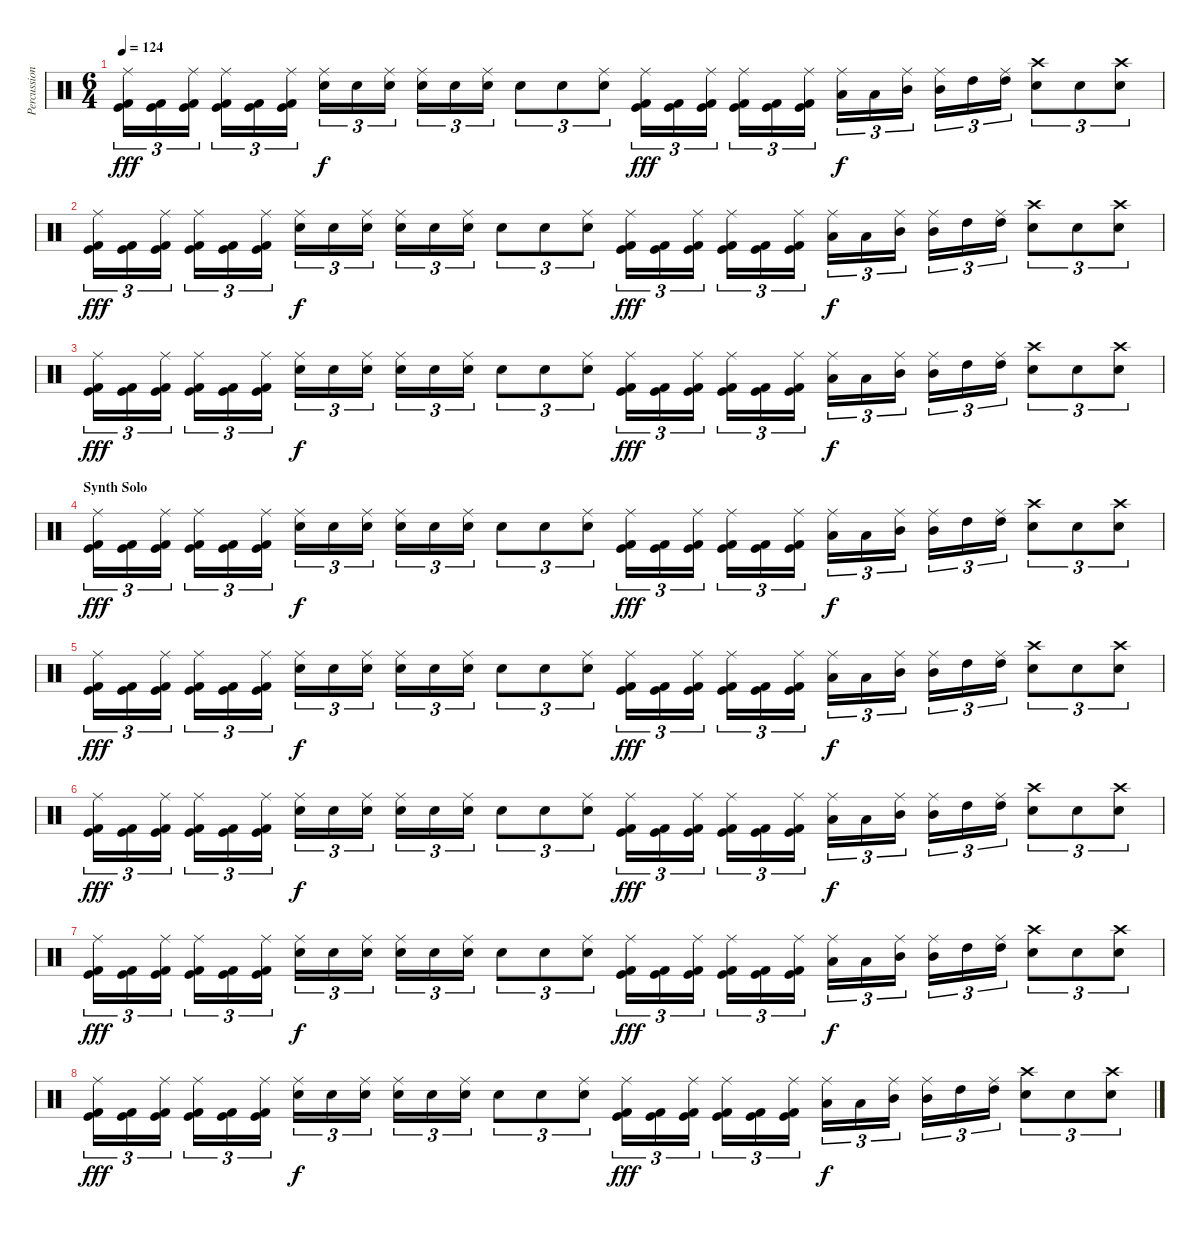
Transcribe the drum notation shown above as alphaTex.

\track ("Percussion" "Percussion") {instrument percussion}
\staff {score}
\articulation defaults
\ts (6 4)
\tempo 124
\clef neutral
\ks c
("Ride (middle)" "Kick (hit) 2" "Kick (hit)").16{tu (3 2) dy fff} ("Kick (hit) 2" "Kick (hit)").16{tu (3 2)} ("Ride (middle)" "Kick (hit) 2" "Kick (hit)").16{tu (3 2)} ("Ride (middle)" "Kick (hit) 2" "Kick (hit)").16{tu (3 2)} ("Kick (hit) 2" "Kick (hit)").16{tu (3 2)} ("Ride (middle)" "Kick (hit) 2" "Kick (hit)").16{tu (3 2)} ("Ride (middle)" "Snare (hit) 2").16{tu (3 2) dy f} "Snare (hit) 2".16{tu (3 2)} ("Ride (middle)" "Snare (hit) 2").16{tu (3 2)} ("Ride (middle)" "Snare (hit) 2").16{tu (3 2)} "Snare (hit) 2".16{tu (3 2)} ("Ride (middle)" "Snare (hit) 2").16{tu (3 2)} "Snare (hit) 2".8{tu (3 2)} "Snare (hit) 2".8{tu (3 2)} ("Ride (middle)" "Snare (hit) 2").8{tu (3 2)} ("Ride (middle)" "Kick (hit) 2" "Kick (hit)").16{tu (3 2) dy fff} ("Kick (hit) 2" "Kick (hit)").16{tu (3 2)} ("Ride (middle)" "Kick (hit) 2" "Kick (hit)").16{tu (3 2)} ("Ride (middle)" "Kick (hit) 2" "Kick (hit)").16{tu (3 2)} ("Kick (hit) 2" "Kick (hit)").16{tu (3 2)} ("Ride (middle)" "Kick (hit) 2" "Kick (hit)").16{tu (3 2)} ("Ride (middle)" "Low Tom (hit)").16{tu (3 2) dy f} "Low Tom (hit)".16{tu (3 2)} ("Ride (middle)" "Mid Tom (hit)").16{tu (3 2)} ("Ride (middle)" "Mid Tom (hit)").16{tu (3 2)} "High Tom (hit)".16{tu (3 2)} ("Ride (middle)" "High Tom (hit)").16{tu (3 2)} ("Crash high (hit)" "Snare (hit) 2").8{tu (3 2)} "Snare (hit) 2".8{tu (3 2)} ("Crash high (hit)" "Snare (hit) 2").8{tu (3 2)} |
("Ride (middle)" "Kick (hit) 2" "Kick (hit)").16{tu (3 2) dy fff} ("Kick (hit) 2" "Kick (hit)").16{tu (3 2)} ("Ride (middle)" "Kick (hit) 2" "Kick (hit)").16{tu (3 2)} ("Ride (middle)" "Kick (hit) 2" "Kick (hit)").16{tu (3 2)} ("Kick (hit) 2" "Kick (hit)").16{tu (3 2)} ("Ride (middle)" "Kick (hit) 2" "Kick (hit)").16{tu (3 2)} ("Ride (middle)" "Snare (hit) 2").16{tu (3 2) dy f} "Snare (hit) 2".16{tu (3 2)} ("Ride (middle)" "Snare (hit) 2").16{tu (3 2)} ("Ride (middle)" "Snare (hit) 2").16{tu (3 2)} "Snare (hit) 2".16{tu (3 2)} ("Ride (middle)" "Snare (hit) 2").16{tu (3 2)} "Snare (hit) 2".8{tu (3 2)} "Snare (hit) 2".8{tu (3 2)} ("Ride (middle)" "Snare (hit) 2").8{tu (3 2)} ("Ride (middle)" "Kick (hit) 2" "Kick (hit)").16{tu (3 2) dy fff} ("Kick (hit) 2" "Kick (hit)").16{tu (3 2)} ("Ride (middle)" "Kick (hit) 2" "Kick (hit)").16{tu (3 2)} ("Ride (middle)" "Kick (hit) 2" "Kick (hit)").16{tu (3 2)} ("Kick (hit) 2" "Kick (hit)").16{tu (3 2)} ("Ride (middle)" "Kick (hit) 2" "Kick (hit)").16{tu (3 2)} ("Ride (middle)" "Low Tom (hit)").16{tu (3 2) dy f} "Low Tom (hit)".16{tu (3 2)} ("Ride (middle)" "Mid Tom (hit)").16{tu (3 2)} ("Ride (middle)" "Mid Tom (hit)").16{tu (3 2)} "High Tom (hit)".16{tu (3 2)} ("Ride (middle)" "High Tom (hit)").16{tu (3 2)} ("Crash high (hit)" "Snare (hit) 2").8{tu (3 2)} "Snare (hit) 2".8{tu (3 2)} ("Crash high (hit)" "Snare (hit) 2").8{tu (3 2)} |
("Ride (middle)" "Kick (hit) 2" "Kick (hit)").16{tu (3 2) dy fff} ("Kick (hit) 2" "Kick (hit)").16{tu (3 2)} ("Ride (middle)" "Kick (hit) 2" "Kick (hit)").16{tu (3 2)} ("Ride (middle)" "Kick (hit) 2" "Kick (hit)").16{tu (3 2)} ("Kick (hit) 2" "Kick (hit)").16{tu (3 2)} ("Ride (middle)" "Kick (hit) 2" "Kick (hit)").16{tu (3 2)} ("Ride (middle)" "Snare (hit) 2").16{tu (3 2) dy f} "Snare (hit) 2".16{tu (3 2)} ("Ride (middle)" "Snare (hit) 2").16{tu (3 2)} ("Ride (middle)" "Snare (hit) 2").16{tu (3 2)} "Snare (hit) 2".16{tu (3 2)} ("Ride (middle)" "Snare (hit) 2").16{tu (3 2)} "Snare (hit) 2".8{tu (3 2)} "Snare (hit) 2".8{tu (3 2)} ("Ride (middle)" "Snare (hit) 2").8{tu (3 2)} ("Ride (middle)" "Kick (hit) 2" "Kick (hit)").16{tu (3 2) dy fff} ("Kick (hit) 2" "Kick (hit)").16{tu (3 2)} ("Ride (middle)" "Kick (hit) 2" "Kick (hit)").16{tu (3 2)} ("Ride (middle)" "Kick (hit) 2" "Kick (hit)").16{tu (3 2)} ("Kick (hit) 2" "Kick (hit)").16{tu (3 2)} ("Ride (middle)" "Kick (hit) 2" "Kick (hit)").16{tu (3 2)} ("Ride (middle)" "Low Tom (hit)").16{tu (3 2) dy f} "Low Tom (hit)".16{tu (3 2)} ("Ride (middle)" "Mid Tom (hit)").16{tu (3 2)} ("Ride (middle)" "Mid Tom (hit)").16{tu (3 2)} "High Tom (hit)".16{tu (3 2)} ("Ride (middle)" "High Tom (hit)").16{tu (3 2)} ("Crash high (hit)" "Snare (hit) 2").8{tu (3 2)} "Snare (hit) 2".8{tu (3 2)} ("Crash high (hit)" "Snare (hit) 2").8{tu (3 2)} |
\section ("" "Synth Solo")
("Ride (middle)" "Kick (hit) 2" "Kick (hit)").16{tu (3 2) dy fff} ("Kick (hit) 2" "Kick (hit)").16{tu (3 2)} ("Ride (middle)" "Kick (hit) 2" "Kick (hit)").16{tu (3 2)} ("Ride (middle)" "Kick (hit) 2" "Kick (hit)").16{tu (3 2)} ("Kick (hit) 2" "Kick (hit)").16{tu (3 2)} ("Ride (middle)" "Kick (hit) 2" "Kick (hit)").16{tu (3 2)} ("Ride (middle)" "Snare (hit) 2").16{tu (3 2) dy f} "Snare (hit) 2".16{tu (3 2)} ("Ride (middle)" "Snare (hit) 2").16{tu (3 2)} ("Ride (middle)" "Snare (hit) 2").16{tu (3 2)} "Snare (hit) 2".16{tu (3 2)} ("Ride (middle)" "Snare (hit) 2").16{tu (3 2)} "Snare (hit) 2".8{tu (3 2)} "Snare (hit) 2".8{tu (3 2)} ("Ride (middle)" "Snare (hit) 2").8{tu (3 2)} ("Ride (middle)" "Kick (hit) 2" "Kick (hit)").16{tu (3 2) dy fff} ("Kick (hit) 2" "Kick (hit)").16{tu (3 2)} ("Ride (middle)" "Kick (hit) 2" "Kick (hit)").16{tu (3 2)} ("Ride (middle)" "Kick (hit) 2" "Kick (hit)").16{tu (3 2)} ("Kick (hit) 2" "Kick (hit)").16{tu (3 2)} ("Ride (middle)" "Kick (hit) 2" "Kick (hit)").16{tu (3 2)} ("Ride (middle)" "Low Tom (hit)").16{tu (3 2) dy f} "Low Tom (hit)".16{tu (3 2)} ("Ride (middle)" "Mid Tom (hit)").16{tu (3 2)} ("Ride (middle)" "Mid Tom (hit)").16{tu (3 2)} "High Tom (hit)".16{tu (3 2)} ("Ride (middle)" "High Tom (hit)").16{tu (3 2)} ("Crash high (hit)" "Snare (hit) 2").8{tu (3 2)} "Snare (hit) 2".8{tu (3 2)} ("Crash high (hit)" "Snare (hit) 2").8{tu (3 2)} |
("Ride (middle)" "Kick (hit) 2" "Kick (hit)").16{tu (3 2) dy fff} ("Kick (hit) 2" "Kick (hit)").16{tu (3 2)} ("Ride (middle)" "Kick (hit) 2" "Kick (hit)").16{tu (3 2)} ("Ride (middle)" "Kick (hit) 2" "Kick (hit)").16{tu (3 2)} ("Kick (hit) 2" "Kick (hit)").16{tu (3 2)} ("Ride (middle)" "Kick (hit) 2" "Kick (hit)").16{tu (3 2)} ("Ride (middle)" "Snare (hit) 2").16{tu (3 2) dy f} "Snare (hit) 2".16{tu (3 2)} ("Ride (middle)" "Snare (hit) 2").16{tu (3 2)} ("Ride (middle)" "Snare (hit) 2").16{tu (3 2)} "Snare (hit) 2".16{tu (3 2)} ("Ride (middle)" "Snare (hit) 2").16{tu (3 2)} "Snare (hit) 2".8{tu (3 2)} "Snare (hit) 2".8{tu (3 2)} ("Ride (middle)" "Snare (hit) 2").8{tu (3 2)} ("Ride (middle)" "Kick (hit) 2" "Kick (hit)").16{tu (3 2) dy fff} ("Kick (hit) 2" "Kick (hit)").16{tu (3 2)} ("Ride (middle)" "Kick (hit) 2" "Kick (hit)").16{tu (3 2)} ("Ride (middle)" "Kick (hit) 2" "Kick (hit)").16{tu (3 2)} ("Kick (hit) 2" "Kick (hit)").16{tu (3 2)} ("Ride (middle)" "Kick (hit) 2" "Kick (hit)").16{tu (3 2)} ("Ride (middle)" "Low Tom (hit)").16{tu (3 2) dy f} "Low Tom (hit)".16{tu (3 2)} ("Ride (middle)" "Mid Tom (hit)").16{tu (3 2)} ("Ride (middle)" "Mid Tom (hit)").16{tu (3 2)} "High Tom (hit)".16{tu (3 2)} ("Ride (middle)" "High Tom (hit)").16{tu (3 2)} ("Crash high (hit)" "Snare (hit) 2").8{tu (3 2)} "Snare (hit) 2".8{tu (3 2)} ("Crash high (hit)" "Snare (hit) 2").8{tu (3 2)} |
("Ride (middle)" "Kick (hit) 2" "Kick (hit)").16{tu (3 2) dy fff} ("Kick (hit) 2" "Kick (hit)").16{tu (3 2)} ("Ride (middle)" "Kick (hit) 2" "Kick (hit)").16{tu (3 2)} ("Ride (middle)" "Kick (hit) 2" "Kick (hit)").16{tu (3 2)} ("Kick (hit) 2" "Kick (hit)").16{tu (3 2)} ("Ride (middle)" "Kick (hit) 2" "Kick (hit)").16{tu (3 2)} ("Ride (middle)" "Snare (hit) 2").16{tu (3 2) dy f} "Snare (hit) 2".16{tu (3 2)} ("Ride (middle)" "Snare (hit) 2").16{tu (3 2)} ("Ride (middle)" "Snare (hit) 2").16{tu (3 2)} "Snare (hit) 2".16{tu (3 2)} ("Ride (middle)" "Snare (hit) 2").16{tu (3 2)} "Snare (hit) 2".8{tu (3 2)} "Snare (hit) 2".8{tu (3 2)} ("Ride (middle)" "Snare (hit) 2").8{tu (3 2)} ("Ride (middle)" "Kick (hit) 2" "Kick (hit)").16{tu (3 2) dy fff} ("Kick (hit) 2" "Kick (hit)").16{tu (3 2)} ("Ride (middle)" "Kick (hit) 2" "Kick (hit)").16{tu (3 2)} ("Ride (middle)" "Kick (hit) 2" "Kick (hit)").16{tu (3 2)} ("Kick (hit) 2" "Kick (hit)").16{tu (3 2)} ("Ride (middle)" "Kick (hit) 2" "Kick (hit)").16{tu (3 2)} ("Ride (middle)" "Low Tom (hit)").16{tu (3 2) dy f} "Low Tom (hit)".16{tu (3 2)} ("Ride (middle)" "Mid Tom (hit)").16{tu (3 2)} ("Ride (middle)" "Mid Tom (hit)").16{tu (3 2)} "High Tom (hit)".16{tu (3 2)} ("Ride (middle)" "High Tom (hit)").16{tu (3 2)} ("Crash high (hit)" "Snare (hit) 2").8{tu (3 2)} "Snare (hit) 2".8{tu (3 2)} ("Crash high (hit)" "Snare (hit) 2").8{tu (3 2)} |
("Ride (middle)" "Kick (hit) 2" "Kick (hit)").16{tu (3 2) dy fff} ("Kick (hit) 2" "Kick (hit)").16{tu (3 2)} ("Ride (middle)" "Kick (hit) 2" "Kick (hit)").16{tu (3 2)} ("Ride (middle)" "Kick (hit) 2" "Kick (hit)").16{tu (3 2)} ("Kick (hit) 2" "Kick (hit)").16{tu (3 2)} ("Ride (middle)" "Kick (hit) 2" "Kick (hit)").16{tu (3 2)} ("Ride (middle)" "Snare (hit) 2").16{tu (3 2) dy f} "Snare (hit) 2".16{tu (3 2)} ("Ride (middle)" "Snare (hit) 2").16{tu (3 2)} ("Ride (middle)" "Snare (hit) 2").16{tu (3 2)} "Snare (hit) 2".16{tu (3 2)} ("Ride (middle)" "Snare (hit) 2").16{tu (3 2)} "Snare (hit) 2".8{tu (3 2)} "Snare (hit) 2".8{tu (3 2)} ("Ride (middle)" "Snare (hit) 2").8{tu (3 2)} ("Ride (middle)" "Kick (hit) 2" "Kick (hit)").16{tu (3 2) dy fff} ("Kick (hit) 2" "Kick (hit)").16{tu (3 2)} ("Ride (middle)" "Kick (hit) 2" "Kick (hit)").16{tu (3 2)} ("Ride (middle)" "Kick (hit) 2" "Kick (hit)").16{tu (3 2)} ("Kick (hit) 2" "Kick (hit)").16{tu (3 2)} ("Ride (middle)" "Kick (hit) 2" "Kick (hit)").16{tu (3 2)} ("Ride (middle)" "Low Tom (hit)").16{tu (3 2) dy f} "Low Tom (hit)".16{tu (3 2)} ("Ride (middle)" "Mid Tom (hit)").16{tu (3 2)} ("Ride (middle)" "Mid Tom (hit)").16{tu (3 2)} "High Tom (hit)".16{tu (3 2)} ("Ride (middle)" "High Tom (hit)").16{tu (3 2)} ("Crash high (hit)" "Snare (hit) 2").8{tu (3 2)} "Snare (hit) 2".8{tu (3 2)} ("Crash high (hit)" "Snare (hit) 2").8{tu (3 2)} |
("Ride (middle)" "Kick (hit) 2" "Kick (hit)").16{tu (3 2) dy fff} ("Kick (hit) 2" "Kick (hit)").16{tu (3 2)} ("Ride (middle)" "Kick (hit) 2" "Kick (hit)").16{tu (3 2)} ("Ride (middle)" "Kick (hit) 2" "Kick (hit)").16{tu (3 2)} ("Kick (hit) 2" "Kick (hit)").16{tu (3 2)} ("Ride (middle)" "Kick (hit) 2" "Kick (hit)").16{tu (3 2)} ("Ride (middle)" "Snare (hit) 2").16{tu (3 2) dy f} "Snare (hit) 2".16{tu (3 2)} ("Ride (middle)" "Snare (hit) 2").16{tu (3 2)} ("Ride (middle)" "Snare (hit) 2").16{tu (3 2)} "Snare (hit) 2".16{tu (3 2)} ("Ride (middle)" "Snare (hit) 2").16{tu (3 2)} "Snare (hit) 2".8{tu (3 2)} "Snare (hit) 2".8{tu (3 2)} ("Ride (middle)" "Snare (hit) 2").8{tu (3 2)} ("Ride (middle)" "Kick (hit) 2" "Kick (hit)").16{tu (3 2) dy fff} ("Kick (hit) 2" "Kick (hit)").16{tu (3 2)} ("Ride (middle)" "Kick (hit) 2" "Kick (hit)").16{tu (3 2)} ("Ride (middle)" "Kick (hit) 2" "Kick (hit)").16{tu (3 2)} ("Kick (hit) 2" "Kick (hit)").16{tu (3 2)} ("Ride (middle)" "Kick (hit) 2" "Kick (hit)").16{tu (3 2)} ("Ride (middle)" "Low Tom (hit)").16{tu (3 2) dy f} "Low Tom (hit)".16{tu (3 2)} ("Ride (middle)" "Mid Tom (hit)").16{tu (3 2)} ("Ride (middle)" "Mid Tom (hit)").16{tu (3 2)} "High Tom (hit)".16{tu (3 2)} ("Ride (middle)" "High Tom (hit)").16{tu (3 2)} ("Crash high (hit)" "Snare (hit) 2").8{tu (3 2)} "Snare (hit) 2".8{tu (3 2)} ("Crash high (hit)" "Snare (hit) 2").8{tu (3 2)}
